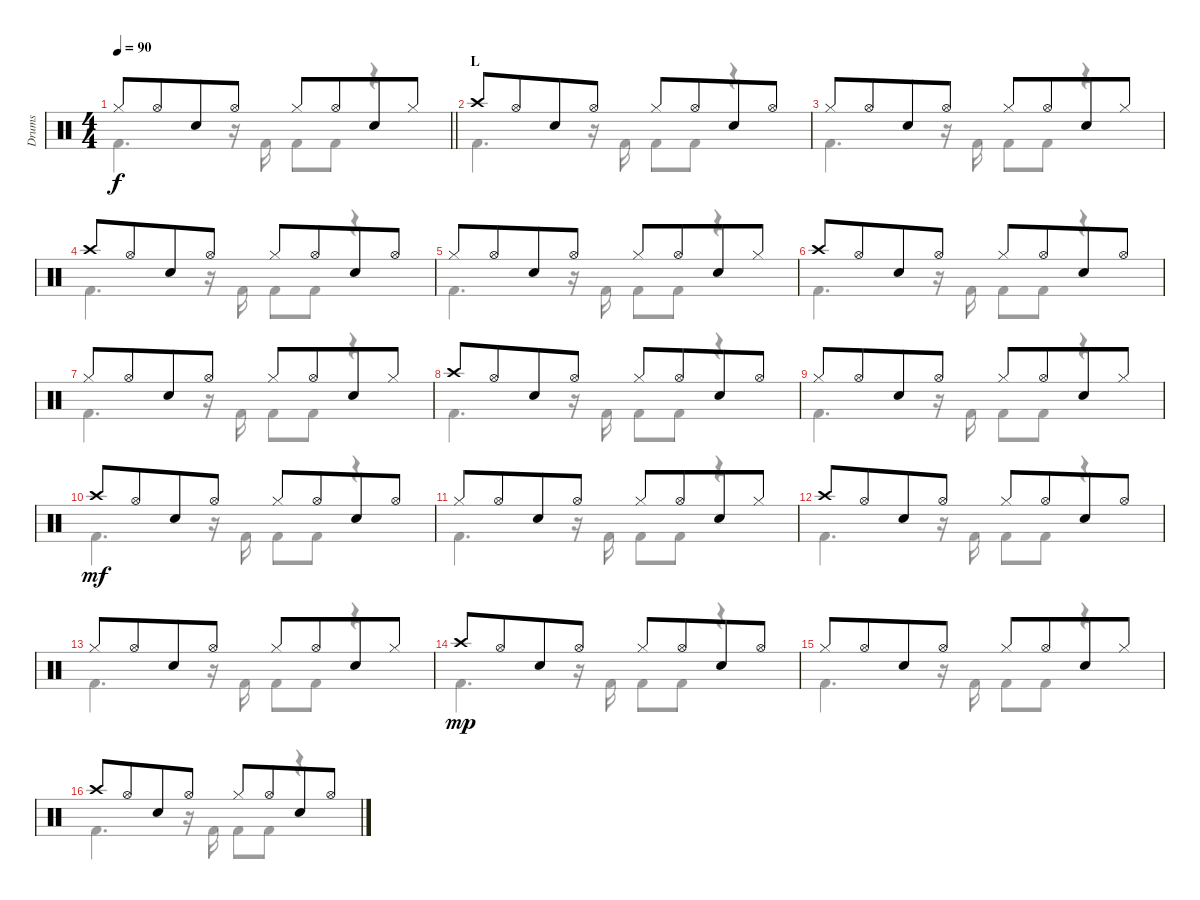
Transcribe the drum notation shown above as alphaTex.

\track ("Drums" "Drums") {instrument percussion}
\staff {score}
\articulation defaults
\voice
\ts (4 4)
\tempo 90
\clef neutral
\barLineRight lightlight
\ks c "Hi-Hat (closed)".8{dy f} "Hi-Hat (open)".8{beam merge} "Snare (hit) 2".8 "Hi-Hat (open)".8 "Hi-Hat (closed)".8 "Hi-Hat (open)".8{beam merge} "Snare (hit) 2".8 "Hi-Hat (closed)".8
|
\section ("" "L")
"Crash high (hit)".8 "Hi-Hat (open)".8{beam merge} "Snare (hit) 2".8 "Hi-Hat (open)".8 "Hi-Hat (closed)".8 "Hi-Hat (open)".8{beam merge} "Snare (hit) 2".8 "Hi-Hat (open)".8 |
"Hi-Hat (closed)".8 "Hi-Hat (open)".8{beam merge} "Snare (hit) 2".8 "Hi-Hat (open)".8 "Hi-Hat (closed)".8 "Hi-Hat (open)".8{beam merge} "Snare (hit) 2".8 "Hi-Hat (closed)".8 |
"Crash high (hit)".8 "Hi-Hat (open)".8{beam merge} "Snare (hit) 2".8 "Hi-Hat (open)".8 "Hi-Hat (closed)".8 "Hi-Hat (open)".8{beam merge} "Snare (hit) 2".8 "Hi-Hat (open)".8 |
"Hi-Hat (closed)".8 "Hi-Hat (open)".8{beam merge} "Snare (hit) 2".8 "Hi-Hat (open)".8 "Hi-Hat (closed)".8 "Hi-Hat (open)".8{beam merge} "Snare (hit) 2".8 "Hi-Hat (closed)".8 |
"Crash high (hit)".8 "Hi-Hat (open)".8{beam merge} "Snare (hit) 2".8 "Hi-Hat (open)".8 "Hi-Hat (closed)".8 "Hi-Hat (open)".8{beam merge} "Snare (hit) 2".8 "Hi-Hat (open)".8 |
"Hi-Hat (closed)".8 "Hi-Hat (open)".8{beam merge} "Snare (hit) 2".8 "Hi-Hat (open)".8 "Hi-Hat (closed)".8 "Hi-Hat (open)".8{beam merge} "Snare (hit) 2".8 "Hi-Hat (closed)".8 |
"Crash high (hit)".8 "Hi-Hat (open)".8{beam merge} "Snare (hit) 2".8 "Hi-Hat (open)".8 "Hi-Hat (closed)".8 "Hi-Hat (open)".8{beam merge} "Snare (hit) 2".8 "Hi-Hat (open)".8 |
"Hi-Hat (closed)".8 "Hi-Hat (open)".8{beam merge} "Snare (hit) 2".8 "Hi-Hat (open)".8 "Hi-Hat (closed)".8 "Hi-Hat (open)".8{beam merge} "Snare (hit) 2".8 "Hi-Hat (closed)".8 |
"Crash high (hit)".8{dy mf volume 8} "Hi-Hat (open)".8{beam merge} "Snare (hit) 2".8 "Hi-Hat (open)".8 "Hi-Hat (closed)".8 "Hi-Hat (open)".8{beam merge} "Snare (hit) 2".8 "Hi-Hat (open)".8 |
"Hi-Hat (closed)".8 "Hi-Hat (open)".8{beam merge} "Snare (hit) 2".8 "Hi-Hat (open)".8 "Hi-Hat (closed)".8 "Hi-Hat (open)".8{beam merge} "Snare (hit) 2".8 "Hi-Hat (closed)".8 |
"Crash high (hit)".8 "Hi-Hat (open)".8{beam merge} "Snare (hit) 2".8 "Hi-Hat (open)".8 "Hi-Hat (closed)".8 "Hi-Hat (open)".8{beam merge} "Snare (hit) 2".8 "Hi-Hat (open)".8 |
"Hi-Hat (closed)".8 "Hi-Hat (open)".8{beam merge} "Snare (hit) 2".8 "Hi-Hat (open)".8 "Hi-Hat (closed)".8 "Hi-Hat (open)".8{beam merge} "Snare (hit) 2".8 "Hi-Hat (closed)".8 |
"Crash high (hit)".8{dy mp volume 0} "Hi-Hat (open)".8{beam merge} "Snare (hit) 2".8 "Hi-Hat (open)".8 "Hi-Hat (closed)".8 "Hi-Hat (open)".8{beam merge} "Snare (hit) 2".8 "Hi-Hat (open)".8 |
"Hi-Hat (closed)".8 "Hi-Hat (open)".8{beam merge} "Snare (hit) 2".8 "Hi-Hat (open)".8 "Hi-Hat (closed)".8 "Hi-Hat (open)".8{beam merge} "Snare (hit) 2".8 "Hi-Hat (closed)".8 |
"Crash high (hit)".8 "Hi-Hat (open)".8{beam merge} "Snare (hit) 2".8 "Hi-Hat (open)".8 "Hi-Hat (closed)".8 "Hi-Hat (open)".8{beam merge} "Snare (hit) 2".8 "Hi-Hat (open)".8
\voice
\clef neutral
\ottava regular
\simile none
\barLineRight lightlight
\ks c "Kick (hit) 2".4{d dy f}
r.16 "Kick (hit) 2".16 "Kick (hit) 2".8 "Kick (hit) 2".8 r.4 |
"Kick (hit) 2".4{d} r.16 "Kick (hit) 2".16 "Kick (hit) 2".8 "Kick (hit) 2".8 r.4 |
"Kick (hit) 2".4{d} r.16 "Kick (hit) 2".16 "Kick (hit) 2".8 "Kick (hit) 2".8 r.4 |
"Kick (hit) 2".4{d} r.16 "Kick (hit) 2".16 "Kick (hit) 2".8 "Kick (hit) 2".8 r.4 |
"Kick (hit) 2".4{d} r.16 "Kick (hit) 2".16 "Kick (hit) 2".8 "Kick (hit) 2".8 r.4 |
"Kick (hit) 2".4{d} r.16 "Kick (hit) 2".16 "Kick (hit) 2".8 "Kick (hit) 2".8 r.4 |
"Kick (hit) 2".4{d} r.16 "Kick (hit) 2".16 "Kick (hit) 2".8 "Kick (hit) 2".8 r.4 |
"Kick (hit) 2".4{d} r.16 "Kick (hit) 2".16 "Kick (hit) 2".8 "Kick (hit) 2".8 r.4 |
"Kick (hit) 2".4{d} r.16 "Kick (hit) 2".16 "Kick (hit) 2".8 "Kick (hit) 2".8 r.4 |
"Kick (hit) 2".4{d dy mf} r.16 "Kick (hit) 2".16 "Kick (hit) 2".8 "Kick (hit) 2".8 r.4 |
"Kick (hit) 2".4{d} r.16 "Kick (hit) 2".16 "Kick (hit) 2".8 "Kick (hit) 2".8 r.4 |
"Kick (hit) 2".4{d} r.16 "Kick (hit) 2".16 "Kick (hit) 2".8 "Kick (hit) 2".8 r.4 |
"Kick (hit) 2".4{d} r.16 "Kick (hit) 2".16 "Kick (hit) 2".8 "Kick (hit) 2".8 r.4 |
"Kick (hit) 2".4{d dy mp} r.16 "Kick (hit) 2".16 "Kick (hit) 2".8 "Kick (hit) 2".8 r.4 |
"Kick (hit) 2".4{d} r.16 "Kick (hit) 2".16 "Kick (hit) 2".8 "Kick (hit) 2".8 r.4 |
"Kick (hit) 2".4{d} r.16 "Kick (hit) 2".16 "Kick (hit) 2".8 "Kick (hit) 2".8 r.4
